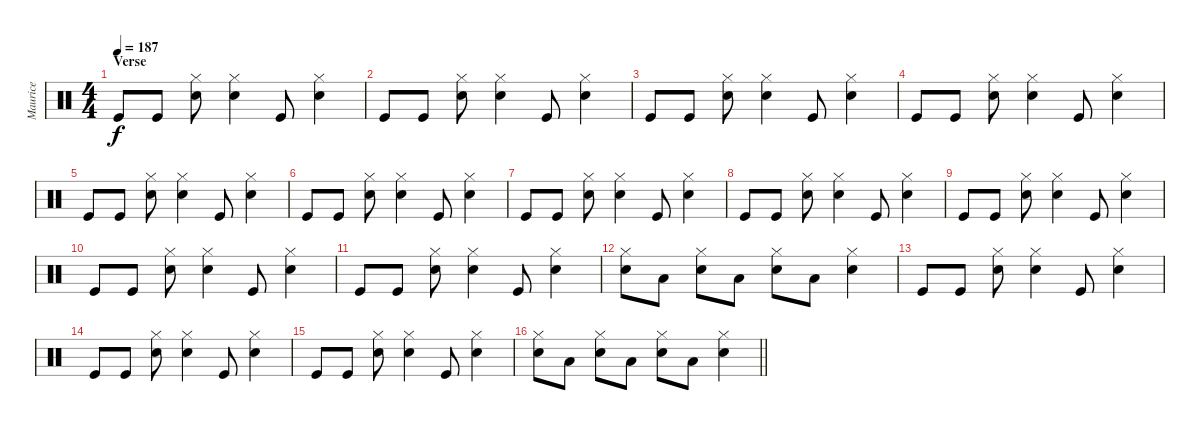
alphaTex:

\track ("Maurice" "Maurice") {instrument percussion}
\staff {score}
\articulation defaults
\ts (4 4)
\section ("" "Verse")
\tempo 187
\clef neutral
\ks c "Kick (hit)".8{dy f} "Kick (hit)".8
("Hi-Hat (closed)" "Snare (hit) 2").8 ("Hi-Hat (closed)" "Snare (hit) 2").4 "Kick (hit)".8 ("Hi-Hat (closed)" "Snare (hit) 2").4 |
"Kick (hit)".8 "Kick (hit)".8 ("Hi-Hat (closed)" "Snare (hit) 2").8 ("Hi-Hat (closed)" "Snare (hit) 2").4 "Kick (hit)".8 ("Hi-Hat (closed)" "Snare (hit) 2").4 |
"Kick (hit)".8 "Kick (hit)".8 ("Hi-Hat (closed)" "Snare (hit) 2").8 ("Hi-Hat (closed)" "Snare (hit) 2").4 "Kick (hit)".8 ("Hi-Hat (closed)" "Snare (hit) 2").4 |
"Kick (hit)".8 "Kick (hit)".8 ("Hi-Hat (closed)" "Snare (hit) 2").8 ("Hi-Hat (closed)" "Snare (hit) 2").4 "Kick (hit)".8 ("Hi-Hat (closed)" "Snare (hit) 2").4 |
"Kick (hit)".8 "Kick (hit)".8 ("Hi-Hat (closed)" "Snare (hit) 2").8 ("Hi-Hat (closed)" "Snare (hit) 2").4 "Kick (hit)".8 ("Hi-Hat (closed)" "Snare (hit) 2").4 |
"Kick (hit)".8 "Kick (hit)".8 ("Hi-Hat (closed)" "Snare (hit) 2").8 ("Hi-Hat (closed)" "Snare (hit) 2").4 "Kick (hit)".8 ("Hi-Hat (closed)" "Snare (hit) 2").4 |
"Kick (hit)".8 "Kick (hit)".8 ("Hi-Hat (closed)" "Snare (hit) 2").8 ("Hi-Hat (closed)" "Snare (hit) 2").4 "Kick (hit)".8 ("Hi-Hat (closed)" "Snare (hit) 2").4 |
"Kick (hit)".8 "Kick (hit)".8 ("Hi-Hat (closed)" "Snare (hit) 2").8 ("Hi-Hat (closed)" "Snare (hit) 2").4 "Kick (hit)".8 ("Hi-Hat (closed)" "Snare (hit) 2").4 |
"Kick (hit)".8 "Kick (hit)".8 ("Hi-Hat (closed)" "Snare (hit) 2").8 ("Hi-Hat (closed)" "Snare (hit) 2").4 "Kick (hit)".8 ("Hi-Hat (closed)" "Snare (hit) 2").4 |
"Kick (hit)".8 "Kick (hit)".8 ("Hi-Hat (closed)" "Snare (hit) 2").8 ("Hi-Hat (closed)" "Snare (hit) 2").4 "Kick (hit)".8 ("Hi-Hat (closed)" "Snare (hit) 2").4 |
"Kick (hit)".8 "Kick (hit)".8 ("Hi-Hat (closed)" "Snare (hit) 2").8 ("Hi-Hat (closed)" "Snare (hit) 2").4 "Kick (hit)".8 ("Hi-Hat (closed)" "Snare (hit) 2").4 |
("Hi-Hat (closed)" "Snare (hit) 2").8 "Low Tom (hit)".8 ("Hi-Hat (closed)" "Snare (hit) 2").8 "Low Tom (hit)".8 ("Hi-Hat (closed)" "Snare (hit) 2").8 "Low Tom (hit)".8 ("Hi-Hat (closed)" "Snare (hit) 2").4 |
"Kick (hit)".8 "Kick (hit)".8 ("Hi-Hat (closed)" "Snare (hit) 2").8 ("Hi-Hat (closed)" "Snare (hit) 2").4 "Kick (hit)".8 ("Hi-Hat (closed)" "Snare (hit) 2").4 |
"Kick (hit)".8 "Kick (hit)".8 ("Hi-Hat (closed)" "Snare (hit) 2").8 ("Hi-Hat (closed)" "Snare (hit) 2").4 "Kick (hit)".8 ("Hi-Hat (closed)" "Snare (hit) 2").4 |
"Kick (hit)".8 "Kick (hit)".8 ("Hi-Hat (closed)" "Snare (hit) 2").8 ("Hi-Hat (closed)" "Snare (hit) 2").4 "Kick (hit)".8 ("Hi-Hat (closed)" "Snare (hit) 2").4 |
\barLineRight lightlight
("Hi-Hat (closed)" "Snare (hit) 2").8 "Low Tom (hit)".8 ("Hi-Hat (closed)" "Snare (hit) 2").8 "Low Tom (hit)".8 ("Hi-Hat (closed)" "Snare (hit) 2").8 "Low Tom (hit)".8 ("Hi-Hat (closed)" "Snare (hit) 2").4
